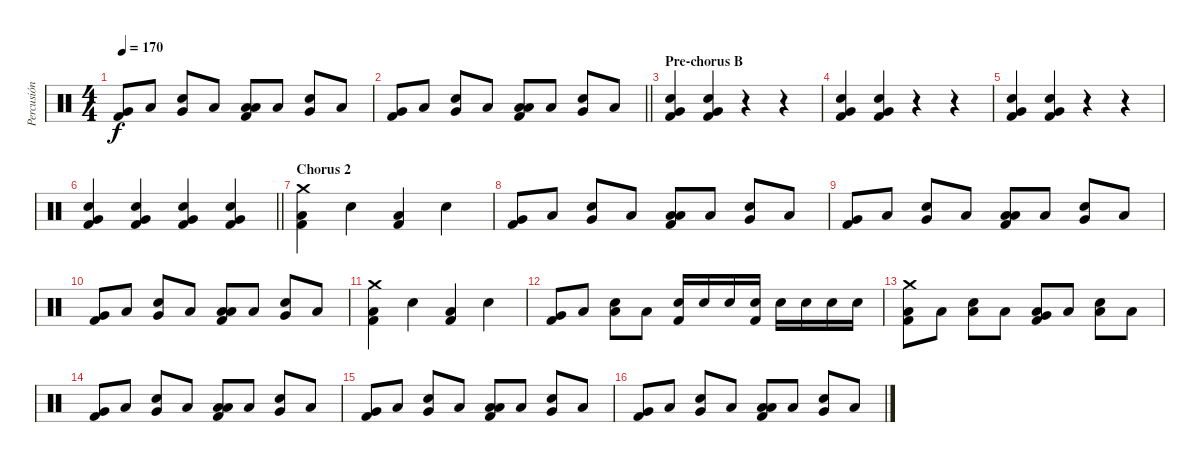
\track ("Percusión" "Percusión") {instrument percussion}
\staff {score}
\articulation defaults
\ts (4 4)
\tempo 170
\clef neutral
\ks c
("Very Low Tom (hit)" "Kick (hit) 2").8{dy f} "Low Tom (hit)".8 ("Snare (hit) 2" "Very Low Tom (hit)").8 "Low Tom (hit)".8 ("Low Tom (hit)" "Low Floor Tom (hit)" "Kick (hit) 2").8 "Low Tom (hit)".8 ("Snare (hit) 2" "Very Low Tom (hit)").8 "Low Tom (hit)".8 |
\barLineRight lightlight
("Very Low Tom (hit)" "Kick (hit) 2").8 "Low Tom (hit)".8 ("Snare (hit) 2" "Very Low Tom (hit)").8 "Low Tom (hit)".8 ("Low Tom (hit)" "Low Floor Tom (hit)" "Kick (hit) 2").8 "Low Tom (hit)".8 ("Snare (hit) 2" "Very Low Tom (hit)").8 "Low Tom (hit)".8 |
\section ("" "Pre-chorus B")
("Snare (hit) 2" "Very Low Tom (hit)" "Kick (hit) 2").4 ("Snare (hit) 2" "Very Low Tom (hit)" "Kick (hit) 2").4 r.4 r.4 |
("Snare (hit) 2" "Very Low Tom (hit)" "Kick (hit) 2").4 ("Snare (hit) 2" "Very Low Tom (hit)" "Kick (hit) 2").4 r.4 r.4 |
("Snare (hit) 2" "Very Low Tom (hit)" "Kick (hit) 2").4 ("Snare (hit) 2" "Very Low Tom (hit)" "Kick (hit) 2").4 r.4 r.4 |
\barLineRight lightlight
("Snare (hit) 2" "Very Low Tom (hit)" "Kick (hit) 2").4 ("Snare (hit) 2" "Very Low Tom (hit)" "Kick (hit) 2").4 ("Snare (hit) 2" "Very Low Tom (hit)" "Kick (hit) 2").4 ("Snare (hit) 2" "Very Low Tom (hit)" "Kick (hit) 2").4 |
\section ("" "Chorus 2")
("Crash medium (hit)" "Low Floor Tom (hit)" "Kick (hit) 2").4 "Snare (hit) 2".4 ("Low Floor Tom (hit)" "Kick (hit) 2").4 "Snare (hit) 2".4 |
("Very Low Tom (hit)" "Kick (hit) 2").8 "Low Tom (hit)".8 ("Snare (hit) 2" "Very Low Tom (hit)").8 "Low Tom (hit)".8 ("Low Tom (hit)" "Low Floor Tom (hit)" "Kick (hit) 2").8 "Low Tom (hit)".8 ("Snare (hit) 2" "Very Low Tom (hit)").8 "Low Tom (hit)".8 |
("Very Low Tom (hit)" "Kick (hit) 2").8 "Low Tom (hit)".8 ("Snare (hit) 2" "Very Low Tom (hit)").8 "Low Tom (hit)".8 ("Low Tom (hit)" "Low Floor Tom (hit)" "Kick (hit) 2").8 "Low Tom (hit)".8 ("Snare (hit) 2" "Very Low Tom (hit)").8 "Low Tom (hit)".8 |
("Very Low Tom (hit)" "Kick (hit) 2").8 "Low Tom (hit)".8 ("Snare (hit) 2" "Very Low Tom (hit)").8 "Low Tom (hit)".8 ("Low Tom (hit)" "Low Floor Tom (hit)" "Kick (hit) 2").8 "Low Tom (hit)".8 ("Snare (hit) 2" "Very Low Tom (hit)").8 "Low Tom (hit)".8 |
("Crash medium (hit)" "Low Floor Tom (hit)" "Kick (hit) 2").4 "Snare (hit) 2".4 ("Low Floor Tom (hit)" "Kick (hit) 2").4 "Snare (hit) 2".4 |
("Very Low Tom (hit)" "Kick (hit) 2").8 "Low Tom (hit)".8 ("Snare (hit) 2" "Low Floor Tom (hit)").8 "Low Tom (hit)".8 ("Electric Snare (hit)" "Kick (hit) 2").16 "Electric Snare (hit)".16 "Electric Snare (hit)".16 ("Electric Snare (hit)" "Kick (hit) 2").16 "Electric Snare (hit)".16 "Electric Snare (hit)".16 "Electric Snare (hit)".16 "Electric Snare (hit)".16 |
("Crash medium (hit)" "Low Floor Tom (hit)" "Kick (hit) 2").8 "Low Tom (hit)".8 ("Snare (hit) 2" "Low Floor Tom (hit)").8 "Low Tom (hit)".8 ("Very Low Tom (hit)" "Low Floor Tom (hit)" "Kick (hit) 2").8 "Low Tom (hit)".8 ("Snare (hit) 2" "Low Floor Tom (hit)").8 "Low Tom (hit)".8 |
("Very Low Tom (hit)" "Kick (hit) 2").8 "Low Tom (hit)".8 ("Snare (hit) 2" "Very Low Tom (hit)").8 "Low Tom (hit)".8 ("Low Tom (hit)" "Low Floor Tom (hit)" "Kick (hit) 2").8 "Low Tom (hit)".8 ("Snare (hit) 2" "Very Low Tom (hit)").8 "Low Tom (hit)".8 |
("Very Low Tom (hit)" "Kick (hit) 2").8 "Low Tom (hit)".8 ("Snare (hit) 2" "Very Low Tom (hit)").8 "Low Tom (hit)".8 ("Low Tom (hit)" "Low Floor Tom (hit)" "Kick (hit) 2").8 "Low Tom (hit)".8 ("Snare (hit) 2" "Very Low Tom (hit)").8 "Low Tom (hit)".8 |
("Very Low Tom (hit)" "Kick (hit) 2").8 "Low Tom (hit)".8 ("Snare (hit) 2" "Very Low Tom (hit)").8 "Low Tom (hit)".8 ("Low Tom (hit)" "Low Floor Tom (hit)" "Kick (hit) 2").8 "Low Tom (hit)".8 ("Snare (hit) 2" "Very Low Tom (hit)").8 "Low Tom (hit)".8
